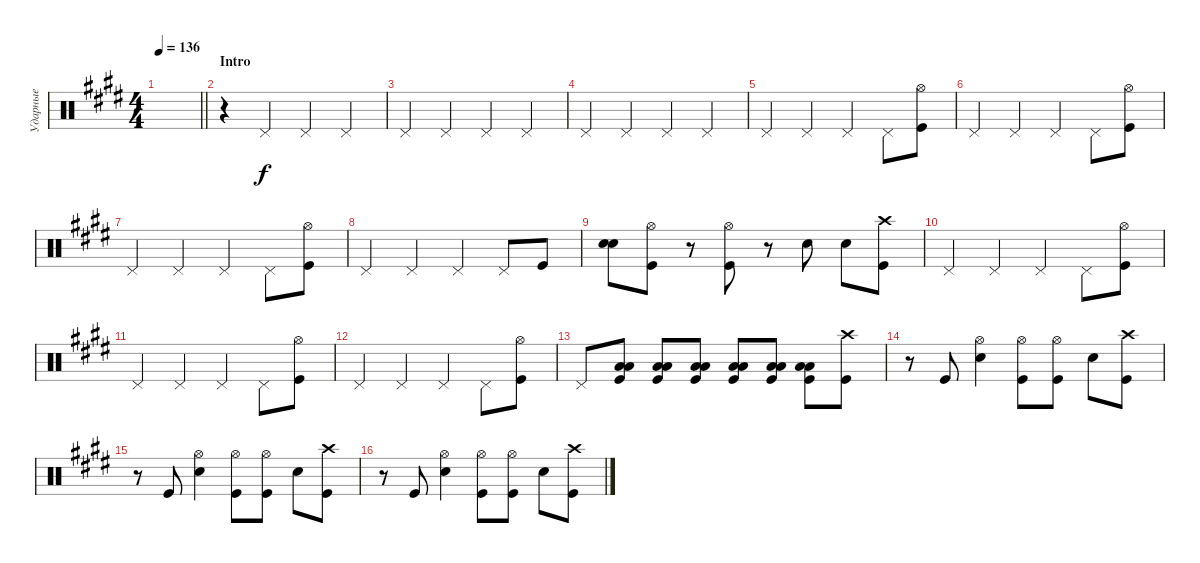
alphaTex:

\track ("Ударные" "Ударные") {instrument percussion}
\staff {score}
\articulation defaults
\ts (4 4)
\tempo 136
\clef neutral
\barLineRight lightlight
\ks c#minor
|
\section ("" "Intro")
r.4 "Pedal Hi-Hat (hit)".4 "Pedal Hi-Hat (hit)".4 "Pedal Hi-Hat (hit)".4 |
"Pedal Hi-Hat (hit)".4 "Pedal Hi-Hat (hit)".4 "Pedal Hi-Hat (hit)".4 "Pedal Hi-Hat (hit)".4 |
"Pedal Hi-Hat (hit)".4 "Pedal Hi-Hat (hit)".4 "Pedal Hi-Hat (hit)".4 "Pedal Hi-Hat (hit)".4 |
"Pedal Hi-Hat (hit)".4 "Pedal Hi-Hat (hit)".4 "Pedal Hi-Hat (hit)".4 "Pedal Hi-Hat (hit)".8 ("Kick (hit)" "Hi-Hat (open)").8 |
"Pedal Hi-Hat (hit)".4 "Pedal Hi-Hat (hit)".4 "Pedal Hi-Hat (hit)".4 "Pedal Hi-Hat (hit)".8 ("Kick (hit)" "Hi-Hat (open)").8 |
"Pedal Hi-Hat (hit)".4 "Pedal Hi-Hat (hit)".4 "Pedal Hi-Hat (hit)".4 "Pedal Hi-Hat (hit)".8 ("Kick (hit)" "Hi-Hat (open)").8 |
"Pedal Hi-Hat (hit)".4 "Pedal Hi-Hat (hit)".4 "Pedal Hi-Hat (hit)".4 "Pedal Hi-Hat (hit)".8 "Kick (hit)".8 |
("Snare (hit) 2" "Snare (hit) 2").8{bd 240} ("Kick (hit)" "Hi-Hat (open)").8 r.8 ("Kick (hit)" "Hi-Hat (open)").8 r.8 "Snare (hit) 2".8 "Snare (hit) 2".8 ("Kick (hit)" "Crash high (hit)").8 |
"Pedal Hi-Hat (hit)".4 "Pedal Hi-Hat (hit)".4 "Pedal Hi-Hat (hit)".4 "Pedal Hi-Hat (hit)".8 ("Kick (hit)" "Hi-Hat (open)").8 |
"Pedal Hi-Hat (hit)".4 "Pedal Hi-Hat (hit)".4 "Pedal Hi-Hat (hit)".4 "Pedal Hi-Hat (hit)".8 ("Kick (hit)" "Hi-Hat (open)").8 |
"Pedal Hi-Hat (hit)".4 "Pedal Hi-Hat (hit)".4 "Pedal Hi-Hat (hit)".4 "Pedal Hi-Hat (hit)".8 ("Kick (hit)" "Hi-Hat (open)").8 |
"Pedal Hi-Hat (hit)".8 ("Kick (hit)" "Low Tom (hit)" "Low Tom (hit)").8{bd 120} ("Kick (hit)" "Low Tom (hit)" "Low Tom (hit)").8{bd 120} ("Kick (hit)" "Low Tom (hit)" "Low Tom (hit)").8{bd 120} ("Kick (hit)" "Low Tom (hit)" "Low Tom (hit)").8{bd 120} ("Kick (hit)" "Low Tom (hit)" "Low Tom (hit)").8{bd 120} ("Kick (hit)" "Low Tom (hit)" "Low Tom (hit)").8{bd 120} ("Kick (hit)" "Crash high (hit)").8 |
r.8 "Kick (hit)".8 ("Snare (hit) 2" "Hi-Hat (open)").4 ("Kick (hit)" "Hi-Hat (open)").8 ("Kick (hit)" "Hi-Hat (open)").8 "Snare (hit) 2".8 ("Kick (hit)" "Crash high (hit)").8 |
r.8 "Kick (hit)".8 ("Snare (hit) 2" "Hi-Hat (open)").4 ("Kick (hit)" "Hi-Hat (open)").8 ("Kick (hit)" "Hi-Hat (open)").8 "Snare (hit) 2".8 ("Kick (hit)" "Crash high (hit)").8 |
r.8 "Kick (hit)".8 ("Snare (hit) 2" "Hi-Hat (open)").4 ("Kick (hit)" "Hi-Hat (open)").8 ("Kick (hit)" "Hi-Hat (open)").8 "Snare (hit) 2".8 ("Kick (hit)" "Crash high (hit)").8
